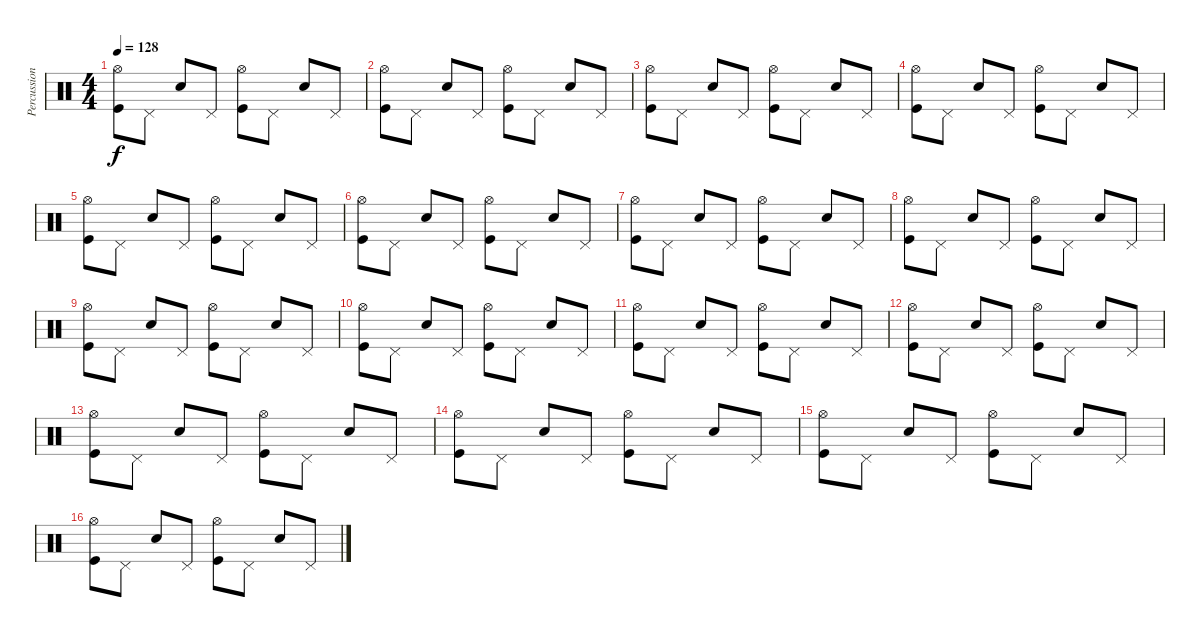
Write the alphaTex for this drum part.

\track ("Percussion" "Percussion") {instrument percussion}
\staff {score}
\articulation defaults
\ts (4 4)
\tempo 128
\clef neutral
\ks c
("Kick (hit)" "Hi-Hat (open)").8{dy f} "Pedal Hi-Hat (hit)".8 "Snare (hit) 2".8 "Pedal Hi-Hat (hit)".8 ("Kick (hit)" "Hi-Hat (open)").8 "Pedal Hi-Hat (hit)".8 "Snare (hit) 2".8 "Pedal Hi-Hat (hit)".8 |
("Kick (hit)" "Hi-Hat (open)").8 "Pedal Hi-Hat (hit)".8 "Snare (hit) 2".8 "Pedal Hi-Hat (hit)".8 ("Kick (hit)" "Hi-Hat (open)").8 "Pedal Hi-Hat (hit)".8 "Snare (hit) 2".8 "Pedal Hi-Hat (hit)".8 |
("Kick (hit)" "Hi-Hat (open)").8 "Pedal Hi-Hat (hit)".8 "Snare (hit) 2".8 "Pedal Hi-Hat (hit)".8 ("Kick (hit)" "Hi-Hat (open)").8 "Pedal Hi-Hat (hit)".8 "Snare (hit) 2".8 "Pedal Hi-Hat (hit)".8 |
("Kick (hit)" "Hi-Hat (open)").8 "Pedal Hi-Hat (hit)".8 "Snare (hit) 2".8 "Pedal Hi-Hat (hit)".8 ("Kick (hit)" "Hi-Hat (open)").8 "Pedal Hi-Hat (hit)".8 "Snare (hit) 2".8 "Pedal Hi-Hat (hit)".8 |
("Kick (hit)" "Hi-Hat (open)").8 "Pedal Hi-Hat (hit)".8 "Snare (hit) 2".8 "Pedal Hi-Hat (hit)".8 ("Kick (hit)" "Hi-Hat (open)").8 "Pedal Hi-Hat (hit)".8 "Snare (hit) 2".8 "Pedal Hi-Hat (hit)".8 |
("Kick (hit)" "Hi-Hat (open)").8 "Pedal Hi-Hat (hit)".8 "Snare (hit) 2".8 "Pedal Hi-Hat (hit)".8 ("Kick (hit)" "Hi-Hat (open)").8 "Pedal Hi-Hat (hit)".8 "Snare (hit) 2".8 "Pedal Hi-Hat (hit)".8 |
("Kick (hit)" "Hi-Hat (open)").8 "Pedal Hi-Hat (hit)".8 "Snare (hit) 2".8 "Pedal Hi-Hat (hit)".8 ("Kick (hit)" "Hi-Hat (open)").8 "Pedal Hi-Hat (hit)".8 "Snare (hit) 2".8 "Pedal Hi-Hat (hit)".8 |
("Kick (hit)" "Hi-Hat (open)").8 "Pedal Hi-Hat (hit)".8 "Snare (hit) 2".8 "Pedal Hi-Hat (hit)".8 ("Kick (hit)" "Hi-Hat (open)").8 "Pedal Hi-Hat (hit)".8 "Snare (hit) 2".8 "Pedal Hi-Hat (hit)".8 |
("Kick (hit)" "Hi-Hat (open)").8 "Pedal Hi-Hat (hit)".8 "Snare (hit) 2".8 "Pedal Hi-Hat (hit)".8 ("Kick (hit)" "Hi-Hat (open)").8 "Pedal Hi-Hat (hit)".8 "Snare (hit) 2".8 "Pedal Hi-Hat (hit)".8 |
("Kick (hit)" "Hi-Hat (open)").8 "Pedal Hi-Hat (hit)".8 "Snare (hit) 2".8 "Pedal Hi-Hat (hit)".8 ("Kick (hit)" "Hi-Hat (open)").8 "Pedal Hi-Hat (hit)".8 "Snare (hit) 2".8 "Pedal Hi-Hat (hit)".8 |
("Kick (hit)" "Hi-Hat (open)").8 "Pedal Hi-Hat (hit)".8 "Snare (hit) 2".8 "Pedal Hi-Hat (hit)".8 ("Kick (hit)" "Hi-Hat (open)").8 "Pedal Hi-Hat (hit)".8 "Snare (hit) 2".8 "Pedal Hi-Hat (hit)".8 |
("Kick (hit)" "Hi-Hat (open)").8 "Pedal Hi-Hat (hit)".8 "Snare (hit) 2".8 "Pedal Hi-Hat (hit)".8 ("Kick (hit)" "Hi-Hat (open)").8 "Pedal Hi-Hat (hit)".8 "Snare (hit) 2".8 "Pedal Hi-Hat (hit)".8 |
("Kick (hit)" "Hi-Hat (open)").8 "Pedal Hi-Hat (hit)".8 "Snare (hit) 2".8 "Pedal Hi-Hat (hit)".8 ("Kick (hit)" "Hi-Hat (open)").8 "Pedal Hi-Hat (hit)".8 "Snare (hit) 2".8 "Pedal Hi-Hat (hit)".8 |
("Kick (hit)" "Hi-Hat (open)").8 "Pedal Hi-Hat (hit)".8 "Snare (hit) 2".8 "Pedal Hi-Hat (hit)".8 ("Kick (hit)" "Hi-Hat (open)").8 "Pedal Hi-Hat (hit)".8 "Snare (hit) 2".8 "Pedal Hi-Hat (hit)".8 |
("Kick (hit)" "Hi-Hat (open)").8 "Pedal Hi-Hat (hit)".8 "Snare (hit) 2".8 "Pedal Hi-Hat (hit)".8 ("Kick (hit)" "Hi-Hat (open)").8 "Pedal Hi-Hat (hit)".8 "Snare (hit) 2".8 "Pedal Hi-Hat (hit)".8 |
("Kick (hit)" "Hi-Hat (open)").8 "Pedal Hi-Hat (hit)".8 "Snare (hit) 2".8 "Pedal Hi-Hat (hit)".8 ("Kick (hit)" "Hi-Hat (open)").8 "Pedal Hi-Hat (hit)".8 "Snare (hit) 2".8 "Pedal Hi-Hat (hit)".8
